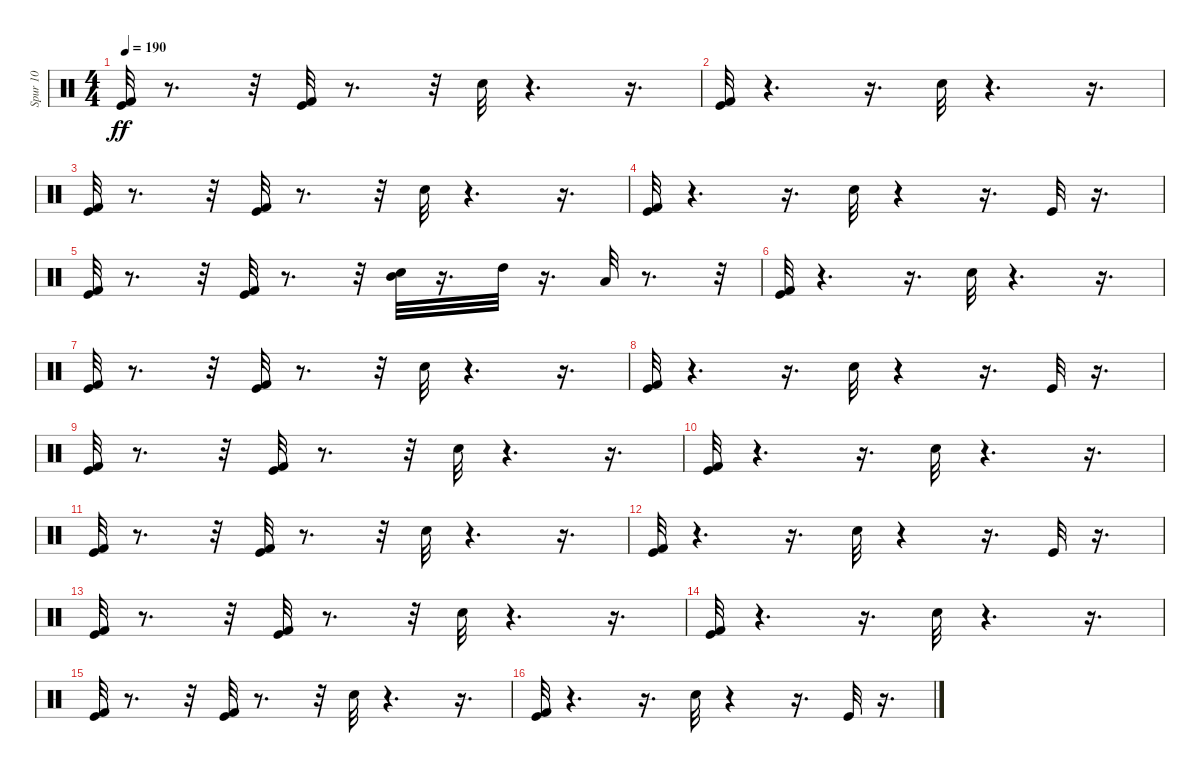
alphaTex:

\track ("Spur 10" "Spur 10") {instrument percussion}
\staff {score}
\articulation defaults
\ts (4 4)
\tempo 190
\clef neutral
\ks c
("Kick (hit) 2" "Kick (hit)").32{dy ff} r.8{d} r.32 ("Kick (hit) 2" "Kick (hit)").32 r.8{d} r.32 "Hand Clap (hit)".32 r.4{d} r.16{d} |
("Kick (hit) 2" "Kick (hit)").32 r.4{d} r.16{d} "Hand Clap (hit)".32 r.4{d} r.16{d} |
("Kick (hit) 2" "Kick (hit)").32 r.8{d} r.32 ("Kick (hit) 2" "Kick (hit)").32 r.8{d} r.32 "Hand Clap (hit)".32 r.4{d} r.16{d} |
("Kick (hit) 2" "Kick (hit)").32 r.4{d} r.16{d} "Hand Clap (hit)".32 r.4 r.16{d} "Kick (hit)".32 r.16{d} |
("Kick (hit) 2" "Kick (hit)").32 r.8{d} r.32 ("Kick (hit) 2" "Kick (hit)").32 r.8{d} r.32 ("Mid Tom (hit)" "Hand Clap (hit)").32 r.16{d} "High Tom (hit)".32 r.16{d} "Low Tom (hit)".32 r.8{d} r.32 |
("Kick (hit) 2" "Kick (hit)").32 r.4{d} r.16{d} "Hand Clap (hit)".32 r.4{d} r.16{d} |
("Kick (hit) 2" "Kick (hit)").32 r.8{d} r.32 ("Kick (hit) 2" "Kick (hit)").32 r.8{d} r.32 "Hand Clap (hit)".32 r.4{d} r.16{d} |
("Kick (hit) 2" "Kick (hit)").32 r.4{d} r.16{d} "Hand Clap (hit)".32 r.4 r.16{d} "Kick (hit)".32 r.16{d} |
("Kick (hit) 2" "Kick (hit)").32 r.8{d} r.32 ("Kick (hit) 2" "Kick (hit)").32 r.8{d} r.32 "Hand Clap (hit)".32 r.4{d} r.16{d} |
("Kick (hit) 2" "Kick (hit)").32 r.4{d} r.16{d} "Hand Clap (hit)".32 r.4{d} r.16{d} |
("Kick (hit) 2" "Kick (hit)").32 r.8{d} r.32 ("Kick (hit) 2" "Kick (hit)").32 r.8{d} r.32 "Hand Clap (hit)".32 r.4{d} r.16{d} |
("Kick (hit) 2" "Kick (hit)").32 r.4{d} r.16{d} "Hand Clap (hit)".32 r.4 r.16{d} "Kick (hit)".32 r.16{d} |
("Kick (hit) 2" "Kick (hit)").32 r.8{d} r.32 ("Kick (hit) 2" "Kick (hit)").32 r.8{d} r.32 "Hand Clap (hit)".32 r.4{d} r.16{d} |
("Kick (hit) 2" "Kick (hit)").32 r.4{d} r.16{d} "Hand Clap (hit)".32 r.4{d} r.16{d} |
("Kick (hit) 2" "Kick (hit)").32 r.8{d} r.32 ("Kick (hit) 2" "Kick (hit)").32 r.8{d} r.32 "Hand Clap (hit)".32 r.4{d} r.16{d} |
("Kick (hit) 2" "Kick (hit)").32 r.4{d} r.16{d} "Hand Clap (hit)".32 r.4 r.16{d} "Kick (hit)".32 r.16{d}
